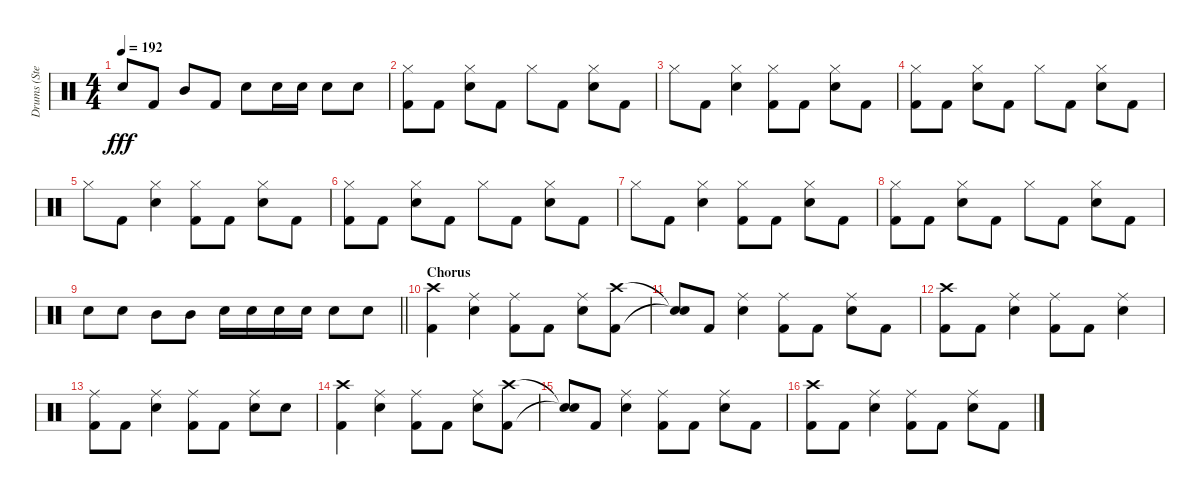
\track ("Drums (Stevo32)" "Drums (Ste") {instrument percussion}
\staff {score}
\articulation defaults
\ts (4 4)
\tempo 192
\clef neutral
\ks c "Electric Snare (hit)".8{dy fff} "Kick (hit) 2".8 "Mid Tom (hit)".8 "Kick (hit) 2".8 "Electric Snare (hit)".8 "Electric Snare (hit)".16 "Electric Snare (hit)".16 "Electric Snare (hit)".8 "Electric Snare (hit)".8
|
("Hi-Hat (closed)" "Kick (hit) 2").8 "Kick (hit) 2".8 ("Hi-Hat (closed)" "Electric Snare (hit)").8 "Kick (hit) 2".8 "Hi-Hat (closed)".8 "Kick (hit) 2".8 ("Hi-Hat (closed)" "Electric Snare (hit)").8 "Kick (hit) 2".8 |
"Hi-Hat (closed)".8 "Kick (hit) 2".8 ("Hi-Hat (closed)" "Electric Snare (hit)").4 ("Hi-Hat (closed)" "Kick (hit) 2").8 "Kick (hit) 2".8 ("Hi-Hat (closed)" "Electric Snare (hit)").8 "Kick (hit) 2".8 |
("Hi-Hat (closed)" "Kick (hit) 2").8 "Kick (hit) 2".8 ("Hi-Hat (closed)" "Electric Snare (hit)").8 "Kick (hit) 2".8 "Hi-Hat (closed)".8 "Kick (hit) 2".8 ("Hi-Hat (closed)" "Electric Snare (hit)").8 "Kick (hit) 2".8 |
"Hi-Hat (closed)".8 "Kick (hit) 2".8 ("Hi-Hat (closed)" "Electric Snare (hit)").4 ("Hi-Hat (closed)" "Kick (hit) 2").8 "Kick (hit) 2".8 ("Hi-Hat (closed)" "Electric Snare (hit)").8 "Kick (hit) 2".8 |
("Hi-Hat (closed)" "Kick (hit) 2").8 "Kick (hit) 2".8 ("Hi-Hat (closed)" "Electric Snare (hit)").8 "Kick (hit) 2".8 "Hi-Hat (closed)".8 "Kick (hit) 2".8 ("Hi-Hat (closed)" "Electric Snare (hit)").8 "Kick (hit) 2".8 |
"Hi-Hat (closed)".8 "Kick (hit) 2".8 ("Hi-Hat (closed)" "Electric Snare (hit)").4 ("Hi-Hat (closed)" "Kick (hit) 2").8 "Kick (hit) 2".8 ("Hi-Hat (closed)" "Electric Snare (hit)").8 "Kick (hit) 2".8 |
("Hi-Hat (closed)" "Kick (hit) 2").8 "Kick (hit) 2".8 ("Hi-Hat (closed)" "Electric Snare (hit)").8 "Kick (hit) 2".8 "Hi-Hat (closed)".8 "Kick (hit) 2".8 ("Hi-Hat (closed)" "Electric Snare (hit)").8 "Kick (hit) 2".8 |
\barLineRight lightlight "Electric Snare (hit)".8 "Electric Snare (hit)".8 "Mid Tom (hit)".8 "Mid Tom (hit)".8 "Electric Snare (hit)".16 "Electric Snare (hit)".16 "Electric Snare (hit)".16 "Electric Snare (hit)".16 "Electric Snare (hit)".8 "Electric Snare (hit)".8
|
\section ("" "Chorus")
("Crash high (hit)" "Kick (hit) 2").4 ("Ride (middle)" "Electric Snare (hit)").4 ("Ride (middle)" "Kick (hit) 2").8 "Kick (hit) 2".8 ("Ride (middle)" "Electric Snare (hit)").8 ("Crash high (hit)" "Kick (hit) 2").8 |
("Snare (hit)"{t} "Snare (hit)"{t}).8 "Kick (hit) 2".8 ("Ride (middle)" "Electric Snare (hit)").4 ("Ride (middle)" "Kick (hit) 2").8 "Kick (hit) 2".8 ("Ride (middle)" "Electric Snare (hit)").8 "Kick (hit) 2".8 |
("Crash high (hit)" "Kick (hit) 2").8 "Kick (hit) 2".8 ("Ride (middle)" "Electric Snare (hit)").4 ("Ride (middle)" "Kick (hit) 2").8 "Kick (hit) 2".8 ("Ride (middle)" "Electric Snare (hit)").4 |
("Ride (middle)" "Kick (hit) 2").8 "Kick (hit) 2".8 ("Ride (middle)" "Electric Snare (hit)").4 ("Ride (middle)" "Kick (hit) 2").8 "Kick (hit) 2".8 ("Ride (middle)" "Electric Snare (hit)").8 "Electric Snare (hit)".8 |
("Crash high (hit)" "Kick (hit) 2").4 ("Ride (middle)" "Electric Snare (hit)").4 ("Ride (middle)" "Kick (hit) 2").8 "Kick (hit) 2".8 ("Ride (middle)" "Electric Snare (hit)").8 ("Crash high (hit)" "Kick (hit) 2").8 |
("Snare (hit)"{t} "Snare (hit)"{t}).8 "Kick (hit) 2".8 ("Ride (middle)" "Electric Snare (hit)").4 ("Ride (middle)" "Kick (hit) 2").8 "Kick (hit) 2".8 ("Ride (middle)" "Electric Snare (hit)").8 "Kick (hit) 2".8 |
("Crash high (hit)" "Kick (hit) 2").8 "Kick (hit) 2".8 ("Ride (middle)" "Electric Snare (hit)").4 ("Ride (middle)" "Kick (hit) 2").8 "Kick (hit) 2".8 ("Ride (middle)" "Electric Snare (hit)").8 "Kick (hit) 2".8
